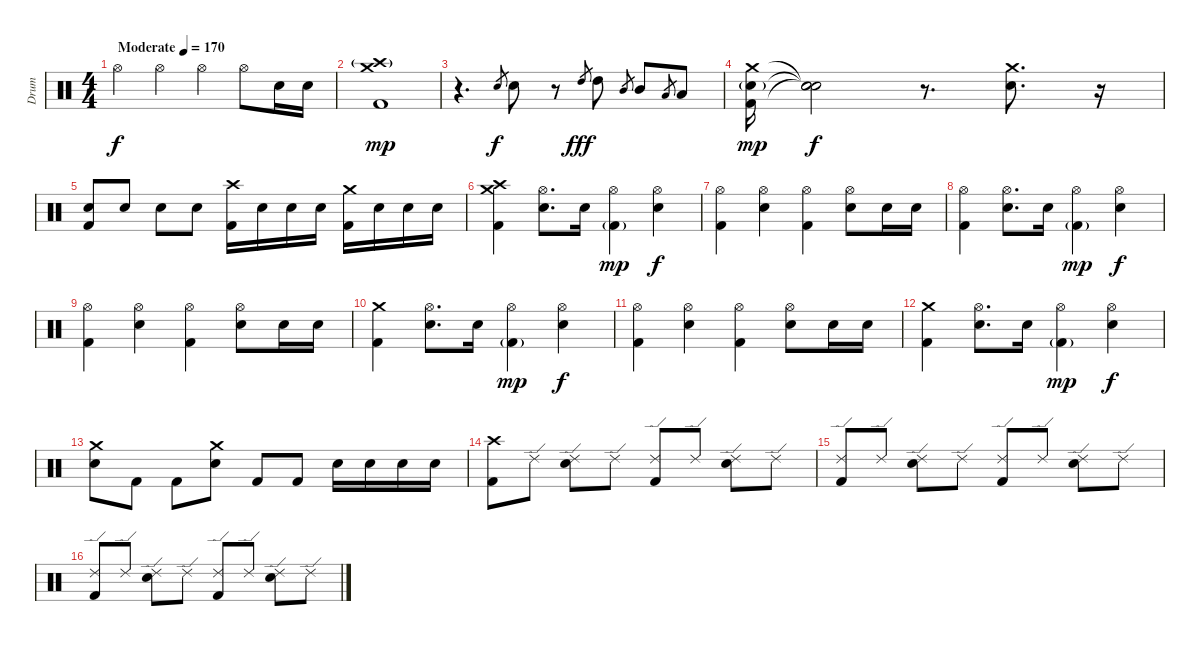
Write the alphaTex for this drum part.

\track ("Drum" "Drum") {instrument percussion}
\staff {score}
\articulation defaults
\ts (4 4)
\tempo (170 "Moderate")
\clef neutral
\ks c "Hi-Hat (open)".4{dy f} "Hi-Hat (open)".4 "Hi-Hat (open)".4 "Hi-Hat (open)".8 "Electric Snare (hit)".16 "Electric Snare (hit)".16
|
("Crash high (hit)"{g} "Kick (hit) 2" "Crash medium (hit)").1{dy mp} |
r.4{d} "Electric Snare (hit)".8{gr dy f} "Electric Snare (hit)".8 r.8 "High Tom (hit)".8{gr dy fff} "High Tom (hit)".8 "Mid Tom (hit)".8{gr} "Mid Tom (hit)".8 "Low Tom (hit)".8{gr} "Low Tom (hit)".8 |
("Electric Snare (hit)"{g} "Kick (hit) 2" "Crash medium (hit)").16{dy mp} ("Snare (hit)"{t} "Snare (hit)"{t} "Snare (hit)"{t}).2{dy f} r.8{d} ("Electric Snare (hit)" "Crash medium (hit)").8{d} r.16 |
("Kick (hit) 2" "Electric Snare (hit)").8 "Electric Snare (hit)".8 "Electric Snare (hit)".8 "Electric Snare (hit)".8 ("Crash high (hit)" "Kick (hit) 2").16 "Electric Snare (hit)".16 "Electric Snare (hit)".16 "Electric Snare (hit)".16 ("Crash medium (hit)" "Kick (hit) 2").16 "Electric Snare (hit)".16 "Electric Snare (hit)".16 "Electric Snare (hit)".16 |
("Crash medium (hit)" "Kick (hit) 2" "Crash high (hit)").4 ("Hi-Hat (open)" "Electric Snare (hit)").8{d} "Electric Snare (hit)".16 ("Hi-Hat (open)" "Kick (hit) 2"{g}).4{dy mp} ("Hi-Hat (open)" "Electric Snare (hit)").4{dy f} |
("Hi-Hat (open)" "Kick (hit) 2").4 ("Hi-Hat (open)" "Electric Snare (hit)").4 ("Hi-Hat (open)" "Kick (hit) 2").4 ("Hi-Hat (open)" "Electric Snare (hit)").8 "Electric Snare (hit)".16 "Electric Snare (hit)".16 |
("Hi-Hat (open)" "Kick (hit) 2").4 ("Hi-Hat (open)" "Electric Snare (hit)").8{d} "Electric Snare (hit)".16 ("Hi-Hat (open)" "Kick (hit) 2"{g}).4{dy mp} ("Hi-Hat (open)" "Electric Snare (hit)").4{dy f} |
("Hi-Hat (open)" "Kick (hit) 2").4 ("Hi-Hat (open)" "Electric Snare (hit)").4 ("Hi-Hat (open)" "Kick (hit) 2").4 ("Hi-Hat (open)" "Electric Snare (hit)").8 "Electric Snare (hit)".16 "Electric Snare (hit)".16 |
("Crash medium (hit)" "Kick (hit) 2").4 ("Hi-Hat (open)" "Electric Snare (hit)").8{d} "Electric Snare (hit)".16 ("Hi-Hat (open)" "Kick (hit) 2"{g}).4{dy mp} ("Hi-Hat (open)" "Electric Snare (hit)").4{dy f} |
("Hi-Hat (open)" "Kick (hit) 2").4 ("Hi-Hat (open)" "Electric Snare (hit)").4 ("Hi-Hat (open)" "Kick (hit) 2").4 ("Hi-Hat (open)" "Electric Snare (hit)").8 "Electric Snare (hit)".16 "Electric Snare (hit)".16 |
("Crash medium (hit)" "Kick (hit) 2").4 ("Hi-Hat (open)" "Electric Snare (hit)").8{d} "Electric Snare (hit)".16 ("Hi-Hat (open)" "Kick (hit) 2"{g}).4{dy mp} ("Hi-Hat (open)" "Electric Snare (hit)").4{dy f} |
("Electric Snare (hit)" "Crash medium (hit)").8 "Kick (hit) 2".8 "Kick (hit) 2".8 ("Electric Snare (hit)" "Crash medium (hit)").8 "Kick (hit) 2".8 "Kick (hit) 2".8 "Electric Snare (hit)".16 "Electric Snare (hit)".16 "Electric Snare (hit)".16 "Electric Snare (hit)".16 |
("Crash high (hit)" "Kick (hit) 2").8 "Ride (edge) 2".8 ("Electric Snare (hit)" "Ride (edge) 2").8 "Ride (edge) 2".8 ("Kick (hit) 2" "Ride (edge) 2").8 "Ride (edge) 2".8 ("Electric Snare (hit)" "Ride (edge) 2").8 "Ride (edge) 2".8 |
("Kick (hit) 2" "Ride (edge) 2").8 "Ride (edge) 2".8 ("Electric Snare (hit)" "Ride (edge) 2").8 "Ride (edge) 2".8 ("Kick (hit) 2" "Ride (edge) 2").8 "Ride (edge) 2".8 ("Electric Snare (hit)" "Ride (edge) 2").8 "Ride (edge) 2".8 |
("Kick (hit) 2" "Ride (edge) 2").8 "Ride (edge) 2".8 ("Electric Snare (hit)" "Ride (edge) 2").8 "Ride (edge) 2".8 ("Kick (hit) 2" "Ride (edge) 2").8 "Ride (edge) 2".8 ("Electric Snare (hit)" "Ride (edge) 2").8 "Ride (edge) 2".8
